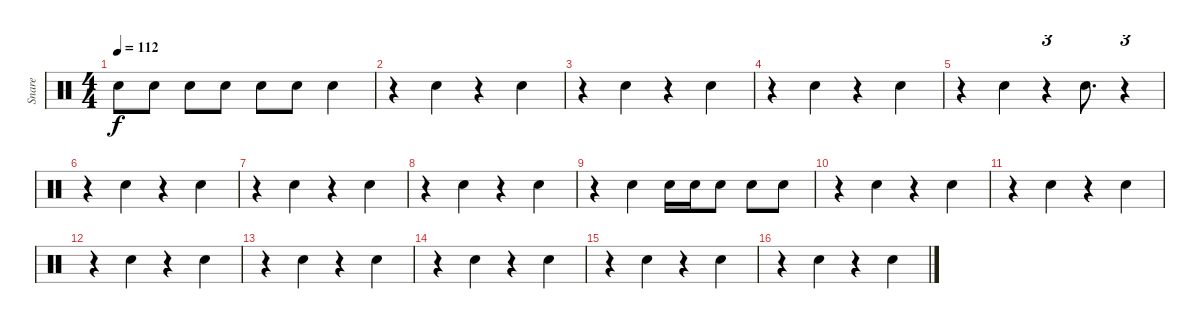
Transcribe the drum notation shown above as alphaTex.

\track ("Snare" "Snare") {instrument percussion}
\staff {score}
\articulation defaults
\ts (4 4)
\tempo 112
\clef neutral
\ks c "Snare (hit) 2".8{dy f} "Snare (hit) 2".8 "Snare (hit) 2".8 "Snare (hit) 2".8 "Snare (hit) 2".8 "Snare (hit) 2".8 "Snare (hit) 2".4
|
r.4 "Snare (hit) 2".4 r.4 "Snare (hit) 2".4 |
r.4 "Snare (hit) 2".4 r.4 "Snare (hit) 2".4 |
r.4 "Snare (hit) 2".4 r.4 "Snare (hit) 2".4 |
r.4 "Snare (hit) 2".4 r.4{tu (3 2)} "Snare (hit) 2".8{d} r.4{tu (3 2)} |
r.4 "Snare (hit) 2".4 r.4 "Snare (hit) 2".4 |
r.4 "Snare (hit) 2".4 r.4 "Snare (hit) 2".4 |
r.4 "Snare (hit) 2".4 r.4 "Snare (hit) 2".4 |
r.4 "Snare (hit) 2".4 "Snare (hit) 2".16 "Snare (hit) 2".16 "Snare (hit) 2".8 "Snare (hit) 2".8 "Snare (hit) 2".8 |
r.4 "Snare (hit) 2".4 r.4 "Snare (hit) 2".4 |
r.4 "Snare (hit) 2".4 r.4 "Snare (hit) 2".4 |
r.4 "Snare (hit) 2".4 r.4 "Snare (hit) 2".4 |
r.4 "Snare (hit) 2".4 r.4 "Snare (hit) 2".4 |
r.4 "Snare (hit) 2".4 r.4 "Snare (hit) 2".4 |
r.4 "Snare (hit) 2".4 r.4 "Snare (hit) 2".4 |
r.4 "Snare (hit) 2".4 r.4 "Snare (hit) 2".4
